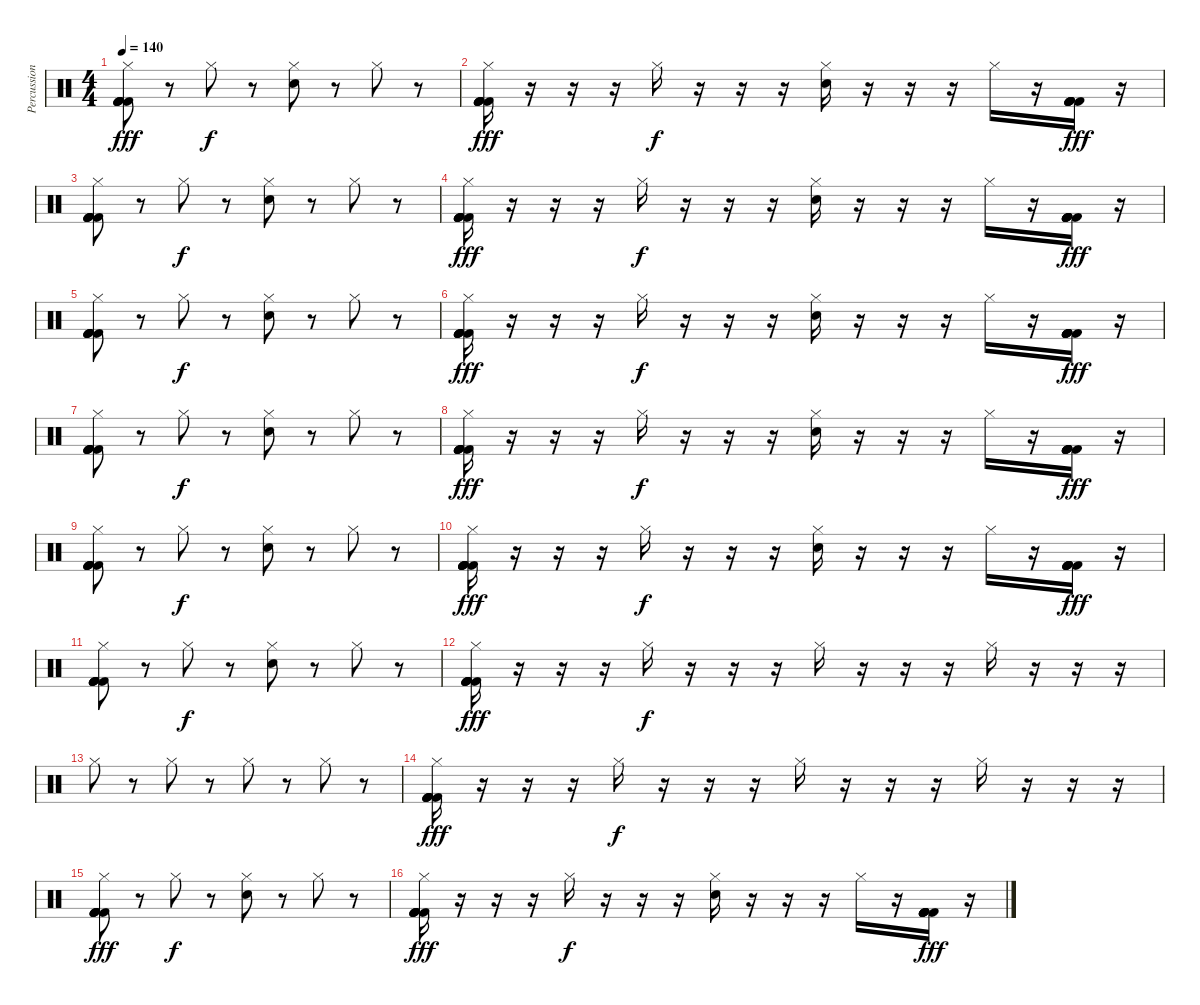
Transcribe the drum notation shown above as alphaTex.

\track ("Percussions" "Percussion") {instrument percussion}
\staff {score}
\articulation defaults
\ts (4 4)
\tempo 140
\clef neutral
\ks c
("Hi-Hat (closed)" "Kick (hit) 2" "Kick (hit) 2" "Kick (hit) 2" "Kick (hit) 2" "Kick (hit) 2").8{dy fff} r.8 "Hi-Hat (closed)".8{dy f} r.8 ("Hi-Hat (closed)" "Snare (hit) 2").8 r.8 "Hi-Hat (closed)".8 r.8 |
("Hi-Hat (closed)" "Kick (hit) 2" "Kick (hit) 2" "Kick (hit) 2" "Kick (hit) 2" "Kick (hit) 2").16{dy fff} r.16 r.16 r.16 "Hi-Hat (closed)".16{dy f} r.16 r.16 r.16 ("Hi-Hat (closed)" "Snare (hit) 2").16 r.16 r.16 r.16 "Hi-Hat (closed)".16 r.16 ("Kick (hit) 2" "Kick (hit) 2" "Kick (hit) 2" "Kick (hit) 2" "Kick (hit) 2" "Kick (hit) 2").16{dy fff} r.16 |
("Hi-Hat (closed)" "Kick (hit) 2" "Kick (hit) 2" "Kick (hit) 2" "Kick (hit) 2" "Kick (hit) 2").8 r.8 "Hi-Hat (closed)".8{dy f} r.8 ("Hi-Hat (closed)" "Snare (hit) 2").8 r.8 "Hi-Hat (closed)".8 r.8 |
("Hi-Hat (closed)" "Kick (hit) 2" "Kick (hit) 2" "Kick (hit) 2" "Kick (hit) 2" "Kick (hit) 2").16{dy fff} r.16 r.16 r.16 "Hi-Hat (closed)".16{dy f} r.16 r.16 r.16 ("Hi-Hat (closed)" "Snare (hit) 2").16 r.16 r.16 r.16 "Hi-Hat (closed)".16 r.16 ("Kick (hit) 2" "Kick (hit) 2" "Kick (hit) 2" "Kick (hit) 2" "Kick (hit) 2" "Kick (hit) 2").16{dy fff} r.16 |
("Hi-Hat (closed)" "Kick (hit) 2" "Kick (hit) 2" "Kick (hit) 2" "Kick (hit) 2" "Kick (hit) 2").8 r.8 "Hi-Hat (closed)".8{dy f} r.8 ("Hi-Hat (closed)" "Snare (hit) 2").8 r.8 "Hi-Hat (closed)".8 r.8 |
("Hi-Hat (closed)" "Kick (hit) 2" "Kick (hit) 2" "Kick (hit) 2" "Kick (hit) 2" "Kick (hit) 2").16{dy fff} r.16 r.16 r.16 "Hi-Hat (closed)".16{dy f} r.16 r.16 r.16 ("Hi-Hat (closed)" "Snare (hit) 2").16 r.16 r.16 r.16 "Hi-Hat (closed)".16 r.16 ("Kick (hit) 2" "Kick (hit) 2" "Kick (hit) 2" "Kick (hit) 2" "Kick (hit) 2" "Kick (hit) 2").16{dy fff} r.16 |
("Hi-Hat (closed)" "Kick (hit) 2" "Kick (hit) 2" "Kick (hit) 2" "Kick (hit) 2" "Kick (hit) 2").8 r.8 "Hi-Hat (closed)".8{dy f} r.8 ("Hi-Hat (closed)" "Snare (hit) 2").8 r.8 "Hi-Hat (closed)".8 r.8 |
("Hi-Hat (closed)" "Kick (hit) 2" "Kick (hit) 2" "Kick (hit) 2" "Kick (hit) 2" "Kick (hit) 2").16{dy fff} r.16 r.16 r.16 "Hi-Hat (closed)".16{dy f} r.16 r.16 r.16 ("Hi-Hat (closed)" "Snare (hit) 2").16 r.16 r.16 r.16 "Hi-Hat (closed)".16 r.16 ("Kick (hit) 2" "Kick (hit) 2" "Kick (hit) 2" "Kick (hit) 2" "Kick (hit) 2" "Kick (hit) 2").16{dy fff} r.16 |
("Hi-Hat (closed)" "Kick (hit) 2" "Kick (hit) 2" "Kick (hit) 2" "Kick (hit) 2" "Kick (hit) 2").8 r.8 "Hi-Hat (closed)".8{dy f} r.8 ("Hi-Hat (closed)" "Snare (hit) 2").8 r.8 "Hi-Hat (closed)".8 r.8 |
("Hi-Hat (closed)" "Kick (hit) 2" "Kick (hit) 2" "Kick (hit) 2" "Kick (hit) 2" "Kick (hit) 2").16{dy fff} r.16 r.16 r.16 "Hi-Hat (closed)".16{dy f} r.16 r.16 r.16 ("Hi-Hat (closed)" "Snare (hit) 2").16 r.16 r.16 r.16 "Hi-Hat (closed)".16 r.16 ("Kick (hit) 2" "Kick (hit) 2" "Kick (hit) 2" "Kick (hit) 2" "Kick (hit) 2" "Kick (hit) 2").16{dy fff} r.16 |
("Hi-Hat (closed)" "Kick (hit) 2" "Kick (hit) 2" "Kick (hit) 2" "Kick (hit) 2" "Kick (hit) 2").8 r.8 "Hi-Hat (closed)".8{dy f} r.8 ("Hi-Hat (closed)" "Snare (hit) 2").8 r.8 "Hi-Hat (closed)".8 r.8 |
("Hi-Hat (closed)" "Kick (hit) 2" "Kick (hit) 2" "Kick (hit) 2" "Kick (hit) 2" "Kick (hit) 2").16{dy fff} r.16 r.16 r.16 "Hi-Hat (closed)".16{dy f} r.16 r.16 r.16 "Hi-Hat (closed)".16 r.16 r.16 r.16 "Hi-Hat (closed)".16 r.16 r.16 r.16 |
"Hi-Hat (closed)".8 r.8 "Hi-Hat (closed)".8 r.8 "Hi-Hat (closed)".8 r.8 "Hi-Hat (closed)".8 r.8 |
("Hi-Hat (closed)" "Kick (hit) 2" "Kick (hit) 2" "Kick (hit) 2" "Kick (hit) 2" "Kick (hit) 2").16{dy fff} r.16 r.16 r.16 "Hi-Hat (closed)".16{dy f} r.16 r.16 r.16 "Hi-Hat (closed)".16 r.16 r.16 r.16 "Hi-Hat (closed)".16 r.16 r.16 r.16 |
("Hi-Hat (closed)" "Kick (hit) 2" "Kick (hit) 2" "Kick (hit) 2" "Kick (hit) 2" "Kick (hit) 2").8{dy fff} r.8 "Hi-Hat (closed)".8{dy f} r.8 ("Hi-Hat (closed)" "Snare (hit) 2").8 r.8 "Hi-Hat (closed)".8 r.8 |
("Hi-Hat (closed)" "Kick (hit) 2" "Kick (hit) 2" "Kick (hit) 2" "Kick (hit) 2" "Kick (hit) 2").16{dy fff} r.16 r.16 r.16 "Hi-Hat (closed)".16{dy f} r.16 r.16 r.16 ("Hi-Hat (closed)" "Snare (hit) 2").16 r.16 r.16 r.16 "Hi-Hat (closed)".16 r.16 ("Kick (hit) 2" "Kick (hit) 2" "Kick (hit) 2" "Kick (hit) 2" "Kick (hit) 2" "Kick (hit) 2").16{dy fff} r.16
